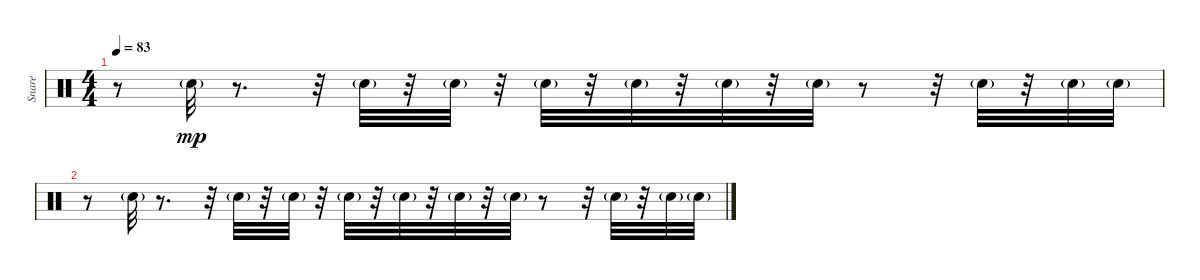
\track ("Snare" "Snare") {instrument percussion}
\staff {score}
\articulation defaults
\ts (4 4)
\tempo 83
\clef neutral
\ks c
r.8{dy mp} "Electric Snare (hit)"{g}.32 r.8{d} r.32 "Electric Snare (hit)"{g}.32 r.32 "Electric Snare (hit)"{g}.32 r.32 "Electric Snare (hit)"{g}.32 r.32 "Electric Snare (hit)"{g}.32 r.32 "Electric Snare (hit)"{g}.32 r.32 "Electric Snare (hit)"{g}.32 r.8 r.32 "Electric Snare (hit)"{g}.32 r.32 "Electric Snare (hit)"{g}.32 "Electric Snare (hit)"{g}.32 |
r.8 "Electric Snare (hit)"{g}.32 r.8{d} r.32 "Electric Snare (hit)"{g}.32 r.32 "Electric Snare (hit)"{g}.32 r.32 "Electric Snare (hit)"{g}.32 r.32 "Electric Snare (hit)"{g}.32 r.32 "Electric Snare (hit)"{g}.32 r.32 "Electric Snare (hit)"{g}.32 r.8 r.32 "Electric Snare (hit)"{g}.32 r.32 "Electric Snare (hit)"{g}.32 "Electric Snare (hit)"{g}.32
